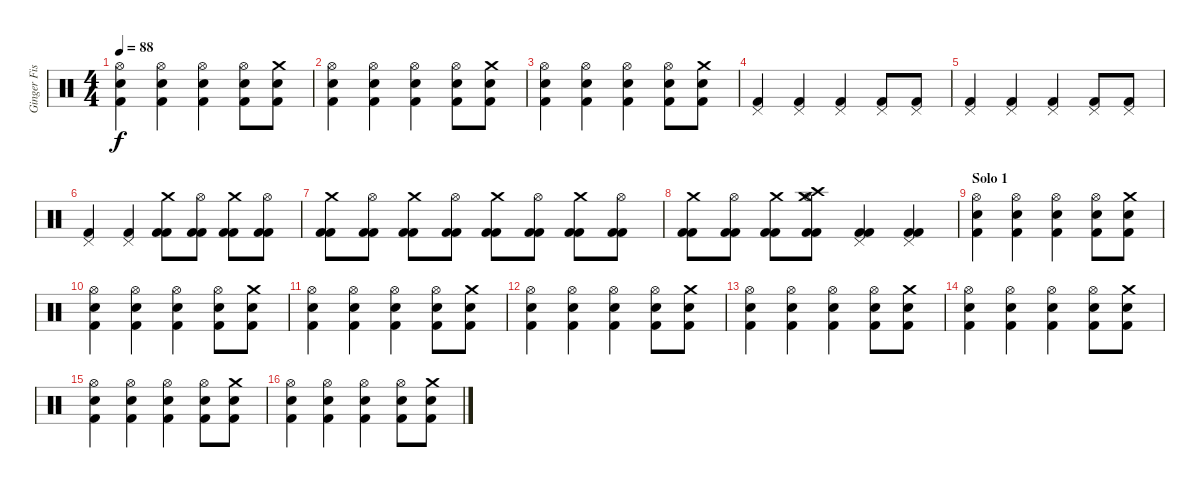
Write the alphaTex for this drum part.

\track ("Ginger Fish (Drums)" "Ginger Fis") {instrument percussion}
\staff {score}
\articulation defaults
\ts (4 4)
\tempo 88
\clef neutral
\ks c
("Hi-Hat (open)" "Snare (hit) 2" "Kick (hit) 2").4{dy f} ("Hi-Hat (open)" "Snare (hit) 2" "Kick (hit) 2").4 ("Hi-Hat (open)" "Snare (hit) 2" "Kick (hit) 2").4 ("Hi-Hat (open)" "Snare (hit) 2" "Kick (hit) 2").8 ("Crash medium (hit)" "Electric Snare (hit)" "Kick (hit) 2").8 |
("Hi-Hat (open)" "Snare (hit) 2" "Kick (hit) 2").4 ("Hi-Hat (open)" "Snare (hit) 2" "Kick (hit) 2").4 ("Hi-Hat (open)" "Snare (hit) 2" "Kick (hit) 2").4 ("Hi-Hat (open)" "Snare (hit) 2" "Kick (hit) 2").8 ("Crash medium (hit)" "Electric Snare (hit)" "Kick (hit) 2").8 |
("Hi-Hat (open)" "Snare (hit) 2" "Kick (hit) 2").4 ("Hi-Hat (open)" "Snare (hit) 2" "Kick (hit) 2").4 ("Hi-Hat (open)" "Snare (hit) 2" "Kick (hit) 2").4 ("Hi-Hat (open)" "Snare (hit) 2" "Kick (hit) 2").8 ("Crash medium (hit)" "Electric Snare (hit)" "Kick (hit) 2").8 |
("Pedal Hi-Hat (hit)" "Kick (hit) 2").4 ("Pedal Hi-Hat (hit)" "Kick (hit) 2").4 ("Pedal Hi-Hat (hit)" "Kick (hit) 2").4 ("Pedal Hi-Hat (hit)" "Kick (hit) 2").8 ("Pedal Hi-Hat (hit)" "Kick (hit) 2").8 |
("Pedal Hi-Hat (hit)" "Kick (hit) 2").4 ("Pedal Hi-Hat (hit)" "Kick (hit) 2").4 ("Pedal Hi-Hat (hit)" "Kick (hit) 2").4 ("Pedal Hi-Hat (hit)" "Kick (hit) 2").8 ("Pedal Hi-Hat (hit)" "Kick (hit) 2").8 |
("Pedal Hi-Hat (hit)" "Kick (hit) 2").4 ("Pedal Hi-Hat (hit)" "Kick (hit) 2").4 ("Crash medium (hit)" "Kick (hit) 2" "Kick (hit) 2").8 ("Hi-Hat (open)" "Kick (hit) 2" "Kick (hit) 2").8 ("Crash medium (hit)" "Kick (hit) 2" "Kick (hit) 2").8 ("Hi-Hat (open)" "Kick (hit) 2" "Kick (hit) 2").8 |
("Crash medium (hit)" "Kick (hit) 2" "Kick (hit) 2").8 ("Hi-Hat (open)" "Kick (hit) 2" "Kick (hit) 2").8 ("Crash medium (hit)" "Kick (hit) 2" "Kick (hit) 2").8 ("Hi-Hat (open)" "Kick (hit) 2" "Kick (hit) 2").8 ("Crash medium (hit)" "Kick (hit) 2" "Kick (hit) 2").8 ("Hi-Hat (open)" "Kick (hit) 2" "Kick (hit) 2").8 ("Crash medium (hit)" "Kick (hit) 2" "Kick (hit) 2").8 ("Hi-Hat (open)" "Kick (hit) 2" "Kick (hit) 2").8 |
("Crash medium (hit)" "Kick (hit) 2" "Kick (hit) 2").8 ("Hi-Hat (open)" "Kick (hit) 2" "Kick (hit) 2").8 ("Crash medium (hit)" "Kick (hit) 2" "Kick (hit) 2").8 ("Crash high (hit)" "Crash medium (hit)" "Hi-Hat (open)" "Kick (hit) 2" "Kick (hit) 2").8 ("Pedal Hi-Hat (hit)" "Kick (hit) 2" "Kick (hit) 2").4 ("Pedal Hi-Hat (hit)" "Kick (hit) 2" "Kick (hit) 2").4 |
\section ("" "Solo 1")
("Hi-Hat (open)" "Snare (hit) 2" "Kick (hit) 2").4 ("Hi-Hat (open)" "Snare (hit) 2" "Kick (hit) 2").4 ("Hi-Hat (open)" "Snare (hit) 2" "Kick (hit) 2").4 ("Hi-Hat (open)" "Snare (hit) 2" "Kick (hit) 2").8 ("Crash medium (hit)" "Electric Snare (hit)" "Kick (hit) 2").8 |
("Hi-Hat (open)" "Snare (hit) 2" "Kick (hit) 2").4 ("Hi-Hat (open)" "Snare (hit) 2" "Kick (hit) 2").4 ("Hi-Hat (open)" "Snare (hit) 2" "Kick (hit) 2").4 ("Hi-Hat (open)" "Snare (hit) 2" "Kick (hit) 2").8 ("Crash medium (hit)" "Electric Snare (hit)" "Kick (hit) 2").8 |
("Hi-Hat (open)" "Snare (hit) 2" "Kick (hit) 2").4 ("Hi-Hat (open)" "Snare (hit) 2" "Kick (hit) 2").4 ("Hi-Hat (open)" "Snare (hit) 2" "Kick (hit) 2").4 ("Hi-Hat (open)" "Snare (hit) 2" "Kick (hit) 2").8 ("Crash medium (hit)" "Electric Snare (hit)" "Kick (hit) 2").8 |
("Hi-Hat (open)" "Snare (hit) 2" "Kick (hit) 2").4 ("Hi-Hat (open)" "Snare (hit) 2" "Kick (hit) 2").4 ("Hi-Hat (open)" "Snare (hit) 2" "Kick (hit) 2").4 ("Hi-Hat (open)" "Snare (hit) 2" "Kick (hit) 2").8 ("Crash medium (hit)" "Electric Snare (hit)" "Kick (hit) 2").8 |
("Hi-Hat (open)" "Snare (hit) 2" "Kick (hit) 2").4 ("Hi-Hat (open)" "Snare (hit) 2" "Kick (hit) 2").4 ("Hi-Hat (open)" "Snare (hit) 2" "Kick (hit) 2").4 ("Hi-Hat (open)" "Snare (hit) 2" "Kick (hit) 2").8 ("Crash medium (hit)" "Electric Snare (hit)" "Kick (hit) 2").8 |
("Hi-Hat (open)" "Snare (hit) 2" "Kick (hit) 2").4 ("Hi-Hat (open)" "Snare (hit) 2" "Kick (hit) 2").4 ("Hi-Hat (open)" "Snare (hit) 2" "Kick (hit) 2").4 ("Hi-Hat (open)" "Snare (hit) 2" "Kick (hit) 2").8 ("Crash medium (hit)" "Electric Snare (hit)" "Kick (hit) 2").8 |
("Hi-Hat (open)" "Snare (hit) 2" "Kick (hit) 2").4 ("Hi-Hat (open)" "Snare (hit) 2" "Kick (hit) 2").4 ("Hi-Hat (open)" "Snare (hit) 2" "Kick (hit) 2").4 ("Hi-Hat (open)" "Snare (hit) 2" "Kick (hit) 2").8 ("Crash medium (hit)" "Electric Snare (hit)" "Kick (hit) 2").8 |
("Hi-Hat (open)" "Snare (hit) 2" "Kick (hit) 2").4 ("Hi-Hat (open)" "Snare (hit) 2" "Kick (hit) 2").4 ("Hi-Hat (open)" "Snare (hit) 2" "Kick (hit) 2").4 ("Hi-Hat (open)" "Snare (hit) 2" "Kick (hit) 2").8 ("Crash medium (hit)" "Electric Snare (hit)" "Kick (hit) 2").8
